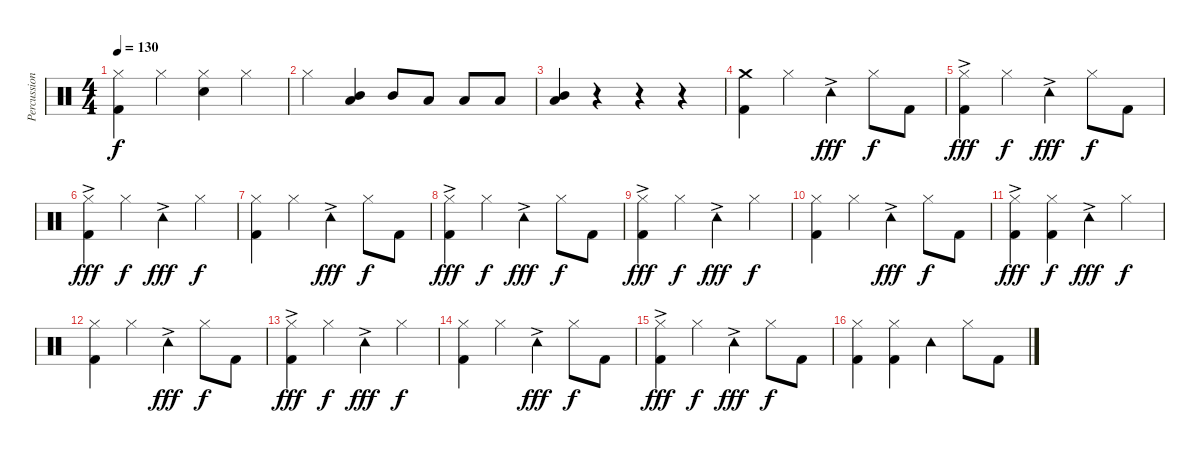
\track ("Percussion" "Percussion") {instrument percussion}
\staff {score}
\articulation defaults
\ts (4 4)
\tempo 130
\clef neutral
\ks c
("Hi-Hat (closed)" "Kick (hit) 2").4{dy f} "Hi-Hat (closed)".4 ("Hi-Hat (closed)" "Snare (hit) 2").4 "Hi-Hat (closed)".4 |
"Hi-Hat (closed)".4 ("Low Tom (hit)" "Mid Tom (hit)").4 "Mid Tom (hit)".8 "Low Tom (hit)".8 "Low Tom (hit)".8 "Low Floor Tom (hit)".8 |
("Mid Tom (hit)" "Low Tom (hit)").4 r.4 r.4 r.4 |
("Kick (hit) 2" "Crash medium (hit)").4 "Hi-Hat (closed)".4 "Tambourine (hit)"{ac}.4{dy fff} "Hi-Hat (closed)".8{dy f} "Kick (hit) 2".8 |
("Hi-Hat (closed)"{ac} "Kick (hit) 2").4{dy fff} "Hi-Hat (closed)".4{dy f} "Tambourine (hit)"{ac}.4{dy fff} "Hi-Hat (closed)".8{dy f} "Kick (hit) 2".8 |
("Hi-Hat (closed)"{ac} "Kick (hit) 2").4{dy fff} "Hi-Hat (closed)".4{dy f} "Tambourine (hit)"{ac}.4{dy fff} "Hi-Hat (closed)".4{dy f} |
("Kick (hit) 2" "Hi-Hat (closed)").4 "Hi-Hat (closed)".4 "Tambourine (hit)"{ac}.4{dy fff} "Hi-Hat (closed)".8{dy f} "Kick (hit) 2".8 |
("Hi-Hat (closed)"{ac} "Kick (hit) 2").4{dy fff} "Hi-Hat (closed)".4{dy f} "Tambourine (hit)"{ac}.4{dy fff} "Hi-Hat (closed)".8{dy f} "Kick (hit) 2".8 |
("Hi-Hat (closed)"{ac} "Kick (hit) 2").4{dy fff} "Hi-Hat (closed)".4{dy f} "Tambourine (hit)"{ac}.4{dy fff} "Hi-Hat (closed)".4{dy f} |
("Kick (hit) 2" "Hi-Hat (closed)").4 "Hi-Hat (closed)".4 "Tambourine (hit)"{ac}.4{dy fff} "Hi-Hat (closed)".8{dy f} "Kick (hit) 2".8 |
("Hi-Hat (closed)"{ac} "Kick (hit) 2").4{dy fff} ("Hi-Hat (closed)" "Kick (hit) 2").4{dy f} "Tambourine (hit)"{ac}.4{dy fff} "Hi-Hat (closed)".4{dy f} |
("Kick (hit) 2" "Hi-Hat (closed)").4 "Hi-Hat (closed)".4 "Tambourine (hit)"{ac}.4{dy fff} "Hi-Hat (closed)".8{dy f} "Kick (hit) 2".8 |
("Hi-Hat (closed)"{ac} "Kick (hit) 2").4{dy fff} "Hi-Hat (closed)".4{dy f} "Tambourine (hit)"{ac}.4{dy fff} "Hi-Hat (closed)".4{dy f} |
("Kick (hit) 2" "Hi-Hat (closed)").4 "Hi-Hat (closed)".4 "Tambourine (hit)"{ac}.4{dy fff} "Hi-Hat (closed)".8{dy f} "Kick (hit) 2".8 |
("Hi-Hat (closed)"{ac} "Kick (hit) 2").4{dy fff} "Hi-Hat (closed)".4{dy f} "Tambourine (hit)"{ac}.4{dy fff} "Hi-Hat (closed)".8{dy f} "Kick (hit) 2".8 |
("Hi-Hat (closed)" "Kick (hit) 2").4 ("Hi-Hat (closed)" "Kick (hit) 2").4 "Tambourine (hit)".4 "Hi-Hat (closed)".8 "Kick (hit) 2".8
